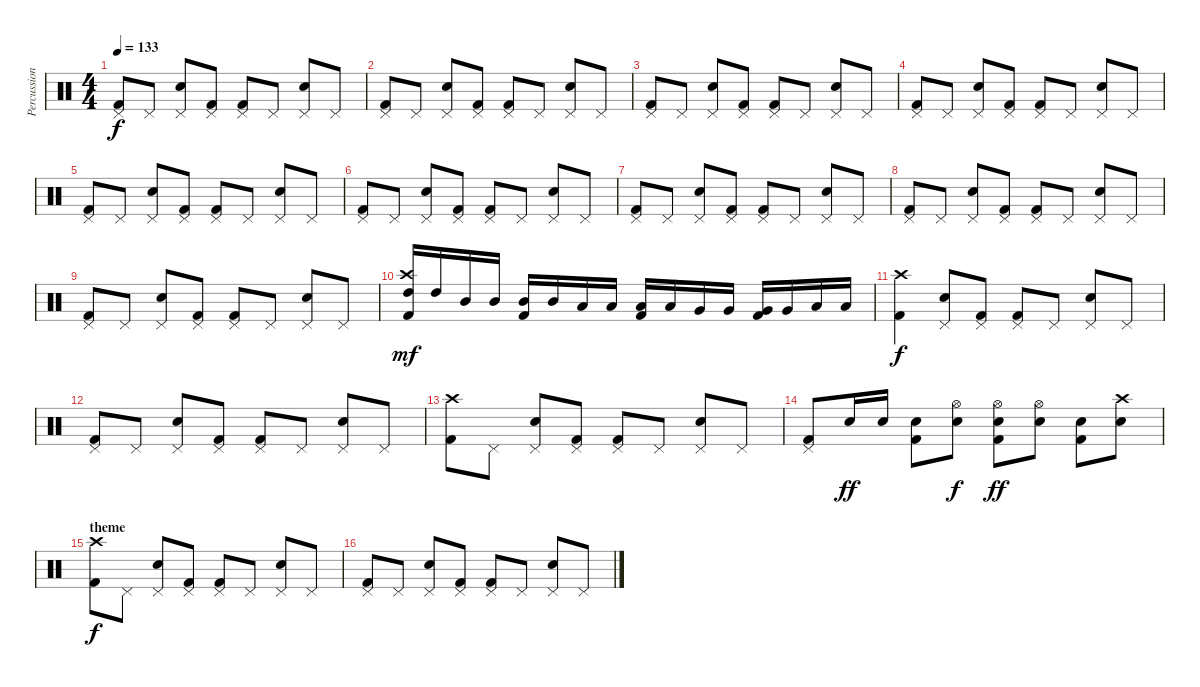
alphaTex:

\track ("Percussions" "Percussion") {instrument percussion}
\staff {score}
\articulation defaults
\ts (4 4)
\tempo 133
\clef neutral
\ks c
("Pedal Hi-Hat (hit)" "Kick (hit) 2").8{dy f} "Pedal Hi-Hat (hit)".8 ("Pedal Hi-Hat (hit)" "Snare (hit) 2").8 ("Pedal Hi-Hat (hit)" "Kick (hit) 2").8 ("Pedal Hi-Hat (hit)" "Kick (hit) 2").8 "Pedal Hi-Hat (hit)".8 ("Pedal Hi-Hat (hit)" "Snare (hit) 2").8 "Pedal Hi-Hat (hit)".8 |
("Pedal Hi-Hat (hit)" "Kick (hit) 2").8 "Pedal Hi-Hat (hit)".8 ("Pedal Hi-Hat (hit)" "Snare (hit) 2").8 ("Pedal Hi-Hat (hit)" "Kick (hit) 2").8 ("Pedal Hi-Hat (hit)" "Kick (hit) 2").8 "Pedal Hi-Hat (hit)".8 ("Pedal Hi-Hat (hit)" "Snare (hit) 2").8 "Pedal Hi-Hat (hit)".8 |
("Pedal Hi-Hat (hit)" "Kick (hit) 2").8 "Pedal Hi-Hat (hit)".8 ("Pedal Hi-Hat (hit)" "Snare (hit) 2").8 ("Pedal Hi-Hat (hit)" "Kick (hit) 2").8 ("Pedal Hi-Hat (hit)" "Kick (hit) 2").8 "Pedal Hi-Hat (hit)".8 ("Pedal Hi-Hat (hit)" "Snare (hit) 2").8 "Pedal Hi-Hat (hit)".8 |
("Pedal Hi-Hat (hit)" "Kick (hit) 2").8 "Pedal Hi-Hat (hit)".8 ("Pedal Hi-Hat (hit)" "Snare (hit) 2").8 ("Pedal Hi-Hat (hit)" "Kick (hit) 2").8 ("Pedal Hi-Hat (hit)" "Kick (hit) 2").8 "Pedal Hi-Hat (hit)".8 ("Pedal Hi-Hat (hit)" "Snare (hit) 2").8 "Pedal Hi-Hat (hit)".8 |
("Pedal Hi-Hat (hit)" "Kick (hit) 2").8 "Pedal Hi-Hat (hit)".8 ("Pedal Hi-Hat (hit)" "Snare (hit) 2").8 ("Pedal Hi-Hat (hit)" "Kick (hit) 2").8 ("Pedal Hi-Hat (hit)" "Kick (hit) 2").8 "Pedal Hi-Hat (hit)".8 ("Pedal Hi-Hat (hit)" "Snare (hit) 2").8 "Pedal Hi-Hat (hit)".8 |
("Pedal Hi-Hat (hit)" "Kick (hit) 2").8 "Pedal Hi-Hat (hit)".8 ("Pedal Hi-Hat (hit)" "Snare (hit) 2").8 ("Pedal Hi-Hat (hit)" "Kick (hit) 2").8 ("Pedal Hi-Hat (hit)" "Kick (hit) 2").8 "Pedal Hi-Hat (hit)".8 ("Pedal Hi-Hat (hit)" "Snare (hit) 2").8 "Pedal Hi-Hat (hit)".8 |
("Pedal Hi-Hat (hit)" "Kick (hit) 2").8 "Pedal Hi-Hat (hit)".8 ("Pedal Hi-Hat (hit)" "Snare (hit) 2").8 ("Pedal Hi-Hat (hit)" "Kick (hit) 2").8 ("Pedal Hi-Hat (hit)" "Kick (hit) 2").8 "Pedal Hi-Hat (hit)".8 ("Pedal Hi-Hat (hit)" "Snare (hit) 2").8 "Pedal Hi-Hat (hit)".8 |
("Pedal Hi-Hat (hit)" "Kick (hit) 2").8 "Pedal Hi-Hat (hit)".8 ("Pedal Hi-Hat (hit)" "Snare (hit) 2").8 ("Pedal Hi-Hat (hit)" "Kick (hit) 2").8 ("Pedal Hi-Hat (hit)" "Kick (hit) 2").8 "Pedal Hi-Hat (hit)".8 ("Pedal Hi-Hat (hit)" "Snare (hit) 2").8 "Pedal Hi-Hat (hit)".8 |
("Pedal Hi-Hat (hit)" "Kick (hit) 2").8 "Pedal Hi-Hat (hit)".8 ("Pedal Hi-Hat (hit)" "Snare (hit) 2").8 ("Pedal Hi-Hat (hit)" "Kick (hit) 2").8 ("Pedal Hi-Hat (hit)" "Kick (hit) 2").8 "Pedal Hi-Hat (hit)".8 ("Pedal Hi-Hat (hit)" "Snare (hit) 2").8 "Pedal Hi-Hat (hit)".8 |
("Crash high (hit)" "High Tom (hit)" "Kick (hit) 2").16{dy mf} "High Tom (hit)".16 "Mid Tom (hit)".16 "Mid Tom (hit)".16 ("Mid Tom (hit)" "Kick (hit) 2").16 "Mid Tom (hit)".16 "Low Tom (hit)".16 "Low Tom (hit)".16 ("Low Tom (hit)" "Kick (hit) 2").16 "Low Tom (hit)".16 "Very Low Tom (hit)".16 "Very Low Tom (hit)".16 ("Very Low Tom (hit)" "Kick (hit) 2").16 "Very Low Tom (hit)".16 "Low Floor Tom (hit)".16 "Low Floor Tom (hit)".16 |
("Crash high (hit)" "Kick (hit) 2").4{dy f} ("Pedal Hi-Hat (hit)" "Snare (hit) 2").8 ("Pedal Hi-Hat (hit)" "Kick (hit) 2").8 ("Pedal Hi-Hat (hit)" "Kick (hit) 2").8 "Pedal Hi-Hat (hit)".8 ("Pedal Hi-Hat (hit)" "Snare (hit) 2").8 "Pedal Hi-Hat (hit)".8 |
("Pedal Hi-Hat (hit)" "Kick (hit) 2").8 "Pedal Hi-Hat (hit)".8 ("Pedal Hi-Hat (hit)" "Snare (hit) 2").8 ("Pedal Hi-Hat (hit)" "Kick (hit) 2").8 ("Pedal Hi-Hat (hit)" "Kick (hit) 2").8 "Pedal Hi-Hat (hit)".8 ("Pedal Hi-Hat (hit)" "Snare (hit) 2").8 "Pedal Hi-Hat (hit)".8 |
("Crash high (hit)" "Kick (hit) 2").8 "Pedal Hi-Hat (hit)".8 ("Pedal Hi-Hat (hit)" "Snare (hit) 2").8 ("Pedal Hi-Hat (hit)" "Kick (hit) 2").8 ("Pedal Hi-Hat (hit)" "Kick (hit) 2").8 "Pedal Hi-Hat (hit)".8 ("Pedal Hi-Hat (hit)" "Snare (hit) 2").8 "Pedal Hi-Hat (hit)".8 |
("Pedal Hi-Hat (hit)" "Kick (hit) 2").8 "Snare (hit) 2".16{dy ff} "Snare (hit) 2".16 ("Electric Snare (hit)" "Kick (hit) 2").8 ("Hi-Hat (open)" "Electric Snare (hit)").8{dy f} ("Hi-Hat (open)" "Electric Snare (hit)" "Kick (hit) 2").8{dy ff} ("Hi-Hat (open)" "Electric Snare (hit)").8 ("Snare (hit) 2" "Kick (hit) 2").8 ("Crash high (hit)" "Snare (hit) 2").8 |
\section ("" "theme")
("Crash high (hit)" "Kick (hit) 2").8{dy f} "Pedal Hi-Hat (hit)".8 ("Pedal Hi-Hat (hit)" "Snare (hit) 2").8 ("Pedal Hi-Hat (hit)" "Kick (hit) 2").8 ("Pedal Hi-Hat (hit)" "Kick (hit) 2").8 "Pedal Hi-Hat (hit)".8 ("Pedal Hi-Hat (hit)" "Snare (hit) 2").8 "Pedal Hi-Hat (hit)".8 |
("Pedal Hi-Hat (hit)" "Kick (hit) 2").8 "Pedal Hi-Hat (hit)".8 ("Pedal Hi-Hat (hit)" "Snare (hit) 2").8 ("Pedal Hi-Hat (hit)" "Kick (hit) 2").8 ("Pedal Hi-Hat (hit)" "Kick (hit) 2").8 "Pedal Hi-Hat (hit)".8 ("Pedal Hi-Hat (hit)" "Snare (hit) 2").8 "Pedal Hi-Hat (hit)".8
